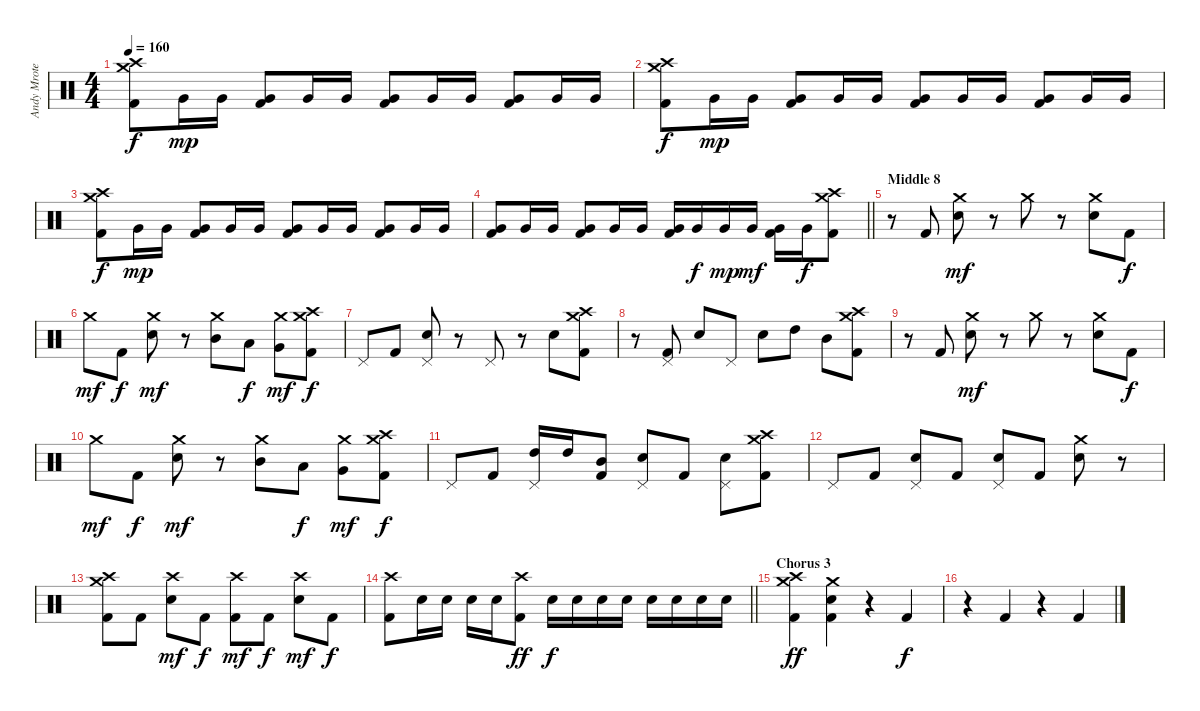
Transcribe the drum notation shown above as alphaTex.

\track ("Andy Mrotek (Drums)" "Andy Mrote") {instrument percussion}
\staff {score}
\articulation defaults
\ts (4 4)
\tempo 160
\clef neutral
\ks c
("Crash medium (hit)" "Crash high (hit)" "Kick (hit) 2").8{dy f} "Very Low Tom (hit)".16{dy mp} "Very Low Tom (hit)".16 ("Very Low Tom (hit)" "Kick (hit) 2").8 "Very Low Tom (hit)".16 "Very Low Tom (hit)".16 ("Very Low Tom (hit)" "Kick (hit) 2").8 "Very Low Tom (hit)".16 "Very Low Tom (hit)".16 ("Very Low Tom (hit)" "Kick (hit) 2").8 "Very Low Tom (hit)".16 "Very Low Tom (hit)".16 |
("Crash medium (hit)" "Crash high (hit)" "Kick (hit) 2").8{dy f} "Very Low Tom (hit)".16{dy mp} "Very Low Tom (hit)".16 ("Very Low Tom (hit)" "Kick (hit) 2").8 "Very Low Tom (hit)".16 "Very Low Tom (hit)".16 ("Very Low Tom (hit)" "Kick (hit) 2").8 "Very Low Tom (hit)".16 "Very Low Tom (hit)".16 ("Very Low Tom (hit)" "Kick (hit) 2").8 "Very Low Tom (hit)".16 "Very Low Tom (hit)".16 |
("Crash medium (hit)" "Crash high (hit)" "Kick (hit) 2").8{dy f} "Very Low Tom (hit)".16{dy mp} "Very Low Tom (hit)".16 ("Very Low Tom (hit)" "Kick (hit) 2").8 "Very Low Tom (hit)".16 "Very Low Tom (hit)".16 ("Very Low Tom (hit)" "Kick (hit) 2").8 "Very Low Tom (hit)".16 "Very Low Tom (hit)".16 ("Very Low Tom (hit)" "Kick (hit) 2").8 "Very Low Tom (hit)".16 "Very Low Tom (hit)".16 |
\barLineRight lightlight
("Very Low Tom (hit)" "Kick (hit) 2").8 "Very Low Tom (hit)".16 "Very Low Tom (hit)".16 ("Very Low Tom (hit)" "Kick (hit) 2").8 "Very Low Tom (hit)".16 "Very Low Tom (hit)".16 ("Very Low Tom (hit)" "Kick (hit) 2").16 "Very Low Tom (hit)".16{dy f} "Very Low Tom (hit)".16{dy mp} "Very Low Tom (hit)".16{dy mf} ("Very Low Tom (hit)" "Kick (hit) 2").16 "Very Low Tom (hit)".16{dy f} ("Crash high (hit)" "Crash medium (hit)" "Kick (hit) 2").8 |
\section ("" "Middle 8")
r.8 "Kick (hit) 2".8 ("Crash medium (hit)" "Electric Snare (hit)").8{dy mf} r.8 "Crash medium (hit)".8 r.8 ("Crash medium (hit)" "Electric Snare (hit)").8 "Kick (hit) 2".8{dy f} |
"Crash medium (hit)".8{dy mf} "Kick (hit) 2".8{dy f} ("Crash medium (hit)" "Electric Snare (hit)").8{dy mf} r.8 ("Crash medium (hit)" "Mid Tom (hit)").8 "Low Tom (hit)".8{dy f} ("Crash medium (hit)" "Very Low Tom (hit)").8{dy mf} ("Crash high (hit)" "Crash medium (hit)" "Kick (hit) 2").8{dy f} |
"Pedal Hi-Hat (hit)".8 "Kick (hit) 2".8 ("Pedal Hi-Hat (hit)" "Electric Snare (hit)").8 r.8 "Pedal Hi-Hat (hit)".8 r.8 "Electric Snare (hit)".8 ("Crash medium (hit)" "Crash high (hit)" "Kick (hit) 2").8 |
r.8 ("Pedal Hi-Hat (hit)" "Kick (hit) 2").8 "Electric Snare (hit)".8 "Pedal Hi-Hat (hit)".8 "Electric Snare (hit)".8 "High Tom (hit)".8 "Mid Tom (hit)".8 ("Crash high (hit)" "Crash medium (hit)" "Kick (hit) 2").8 |
r.8 "Kick (hit) 2".8 ("Crash medium (hit)" "Electric Snare (hit)").8{dy mf} r.8 "Crash medium (hit)".8 r.8 ("Crash medium (hit)" "Electric Snare (hit)").8 "Kick (hit) 2".8{dy f} |
"Crash medium (hit)".8{dy mf} "Kick (hit) 2".8{dy f} ("Crash medium (hit)" "Electric Snare (hit)").8{dy mf} r.8 ("Crash medium (hit)" "Mid Tom (hit)").8 "Low Tom (hit)".8{dy f} ("Crash medium (hit)" "Very Low Tom (hit)").8{dy mf} ("Crash high (hit)" "Crash medium (hit)" "Kick (hit) 2").8{dy f} |
"Pedal Hi-Hat (hit)".8 "Kick (hit) 2".8 ("Pedal Hi-Hat (hit)" "High Tom (hit)").16 "High Tom (hit)".16 ("Mid Tom (hit)" "Kick (hit) 2").8 ("Pedal Hi-Hat (hit)" "Electric Snare (hit)").8 "Kick (hit) 2".8 ("Pedal Hi-Hat (hit)" "Electric Snare (hit)").8 ("Crash medium (hit)" "Crash high (hit)" "Kick (hit) 2").8 |
"Pedal Hi-Hat (hit)".8 "Kick (hit) 2".8 ("Pedal Hi-Hat (hit)" "Electric Snare (hit)").8 "Kick (hit) 2".8 ("Pedal Hi-Hat (hit)" "Electric Snare (hit)").8 "Kick (hit) 2".8 ("Crash medium (hit)" "Electric Snare (hit)").8 r.8 |
("Crash high (hit)" "Crash medium (hit)" "Kick (hit) 2").8 "Kick (hit) 2".8 ("Crash high (hit)" "Electric Snare (hit)").8{dy mf} "Kick (hit) 2".8{dy f} ("Crash high (hit)" "Kick (hit) 2").8{dy mf} "Kick (hit) 2".8{dy f} ("Crash high (hit)" "Electric Snare (hit)").8{dy mf} "Kick (hit) 2".8{dy f} |
\barLineRight lightlight
("Crash high (hit)" "Kick (hit) 2").8 "Electric Snare (hit)".16 "Electric Snare (hit)".16 "Electric Snare (hit)".16 "Electric Snare (hit)".16 ("Crash high (hit)" "Kick (hit) 2").8{dy ff} "Electric Snare (hit)".16{dy f} "Electric Snare (hit)".16 "Electric Snare (hit)".16 "Electric Snare (hit)".16 "Electric Snare (hit)".16 "Electric Snare (hit)".16 "Electric Snare (hit)".16 "Electric Snare (hit)".16 |
\section ("" "Chorus 3")
("Crash high (hit)" "Crash medium (hit)" "Kick (hit) 2").4{dy ff} ("Crash medium (hit)" "Electric Snare (hit)" "Kick (hit) 2").4 r.4 "Kick (hit) 2".4{dy f} |
r.4 "Kick (hit) 2".4 r.4 "Kick (hit) 2".4
